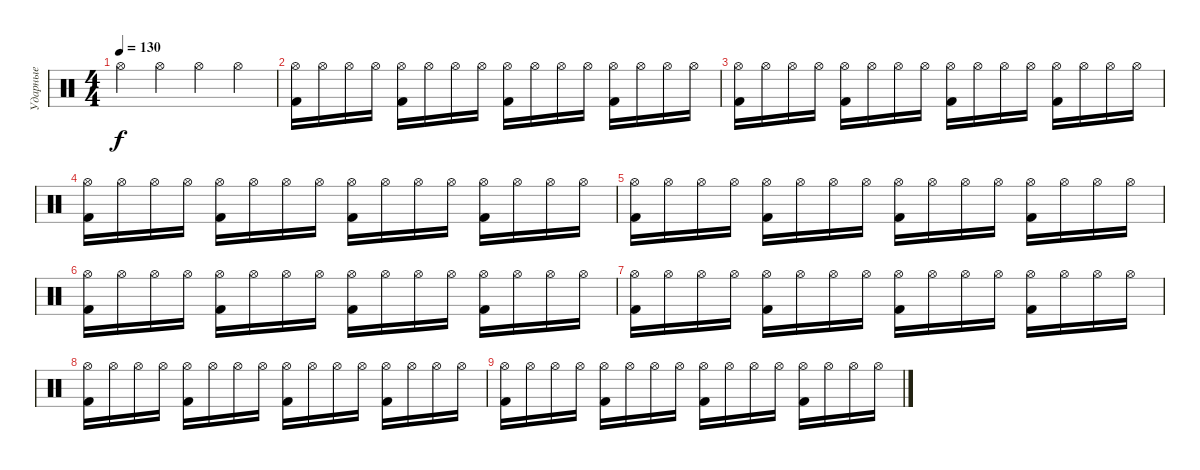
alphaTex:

\track ("Ударные" "Ударные") {instrument percussion}
\staff {score}
\articulation defaults
\ts (4 4)
\tempo 130
\clef neutral
\ks c "Hi-Hat (open)".4{dy f} "Hi-Hat (open)".4 "Hi-Hat (open)".4 "Hi-Hat (open)".4
|
("Hi-Hat (open)" "Kick (hit) 2").16 "Hi-Hat (open)".16 "Hi-Hat (open)".16 "Hi-Hat (open)".16 ("Hi-Hat (open)" "Kick (hit) 2").16 "Hi-Hat (open)".16 "Hi-Hat (open)".16 "Hi-Hat (open)".16 ("Hi-Hat (open)" "Kick (hit) 2").16 "Hi-Hat (open)".16 "Hi-Hat (open)".16 "Hi-Hat (open)".16 ("Hi-Hat (open)" "Kick (hit) 2").16 "Hi-Hat (open)".16 "Hi-Hat (open)".16 "Hi-Hat (open)".16 |
("Hi-Hat (open)" "Kick (hit) 2").16 "Hi-Hat (open)".16 "Hi-Hat (open)".16 "Hi-Hat (open)".16 ("Hi-Hat (open)" "Kick (hit) 2").16 "Hi-Hat (open)".16 "Hi-Hat (open)".16 "Hi-Hat (open)".16 ("Hi-Hat (open)" "Kick (hit) 2").16 "Hi-Hat (open)".16 "Hi-Hat (open)".16 "Hi-Hat (open)".16 ("Hi-Hat (open)" "Kick (hit) 2").16 "Hi-Hat (open)".16 "Hi-Hat (open)".16 "Hi-Hat (open)".16 |
("Hi-Hat (open)" "Kick (hit) 2").16 "Hi-Hat (open)".16 "Hi-Hat (open)".16 "Hi-Hat (open)".16 ("Hi-Hat (open)" "Kick (hit) 2").16 "Hi-Hat (open)".16 "Hi-Hat (open)".16 "Hi-Hat (open)".16 ("Hi-Hat (open)" "Kick (hit) 2").16 "Hi-Hat (open)".16 "Hi-Hat (open)".16 "Hi-Hat (open)".16 ("Hi-Hat (open)" "Kick (hit) 2").16 "Hi-Hat (open)".16 "Hi-Hat (open)".16 "Hi-Hat (open)".16 |
("Hi-Hat (open)" "Kick (hit) 2").16 "Hi-Hat (open)".16 "Hi-Hat (open)".16 "Hi-Hat (open)".16 ("Hi-Hat (open)" "Kick (hit) 2").16 "Hi-Hat (open)".16 "Hi-Hat (open)".16 "Hi-Hat (open)".16 ("Hi-Hat (open)" "Kick (hit) 2").16 "Hi-Hat (open)".16 "Hi-Hat (open)".16 "Hi-Hat (open)".16 ("Hi-Hat (open)" "Kick (hit) 2").16 "Hi-Hat (open)".16 "Hi-Hat (open)".16 "Hi-Hat (open)".16 |
("Hi-Hat (open)" "Kick (hit) 2").16 "Hi-Hat (open)".16 "Hi-Hat (open)".16 "Hi-Hat (open)".16 ("Hi-Hat (open)" "Kick (hit) 2").16 "Hi-Hat (open)".16 "Hi-Hat (open)".16 "Hi-Hat (open)".16 ("Hi-Hat (open)" "Kick (hit) 2").16 "Hi-Hat (open)".16 "Hi-Hat (open)".16 "Hi-Hat (open)".16 ("Hi-Hat (open)" "Kick (hit) 2").16 "Hi-Hat (open)".16 "Hi-Hat (open)".16 "Hi-Hat (open)".16 |
("Hi-Hat (open)" "Kick (hit) 2").16 "Hi-Hat (open)".16 "Hi-Hat (open)".16 "Hi-Hat (open)".16 ("Hi-Hat (open)" "Kick (hit) 2").16 "Hi-Hat (open)".16 "Hi-Hat (open)".16 "Hi-Hat (open)".16 ("Hi-Hat (open)" "Kick (hit) 2").16 "Hi-Hat (open)".16 "Hi-Hat (open)".16 "Hi-Hat (open)".16 ("Hi-Hat (open)" "Kick (hit) 2").16 "Hi-Hat (open)".16 "Hi-Hat (open)".16 "Hi-Hat (open)".16 |
("Hi-Hat (open)" "Kick (hit) 2").16 "Hi-Hat (open)".16 "Hi-Hat (open)".16 "Hi-Hat (open)".16 ("Hi-Hat (open)" "Kick (hit) 2").16 "Hi-Hat (open)".16 "Hi-Hat (open)".16 "Hi-Hat (open)".16 ("Hi-Hat (open)" "Kick (hit) 2").16 "Hi-Hat (open)".16 "Hi-Hat (open)".16 "Hi-Hat (open)".16 ("Hi-Hat (open)" "Kick (hit) 2").16 "Hi-Hat (open)".16 "Hi-Hat (open)".16 "Hi-Hat (open)".16 |
("Hi-Hat (open)" "Kick (hit) 2").16 "Hi-Hat (open)".16 "Hi-Hat (open)".16 "Hi-Hat (open)".16 ("Hi-Hat (open)" "Kick (hit) 2").16 "Hi-Hat (open)".16 "Hi-Hat (open)".16 "Hi-Hat (open)".16 ("Hi-Hat (open)" "Kick (hit) 2").16 "Hi-Hat (open)".16 "Hi-Hat (open)".16 "Hi-Hat (open)".16 ("Hi-Hat (open)" "Kick (hit) 2").16 "Hi-Hat (open)".16 "Hi-Hat (open)".16 "Hi-Hat (open)".16
